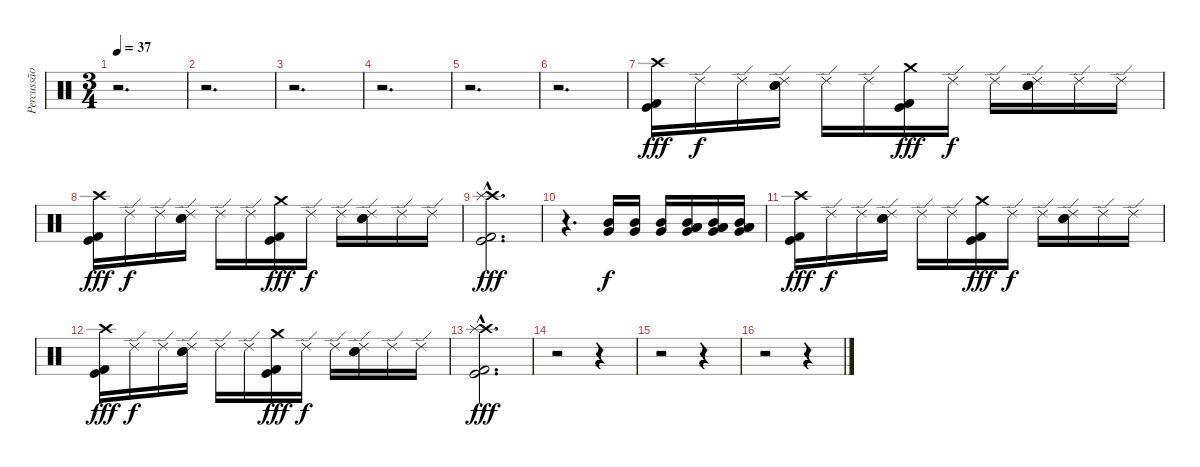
\track ("Percussão" "Percussão") {instrument percussion}
\staff {score}
\articulation defaults
\ts (3 4)
\tempo 37
\clef neutral
\ks c
r.2{d dy fff} |
r.2{d} |
r.2{d} |
r.2{d} |
r.2{d} |
r.2{d} |
("Crash high (hit)" "Kick (hit) 2" "Kick (hit)").16 "Ride (edge) 2".16{dy f} "Ride (edge) 2".16 ("Ride (edge) 2" "Electric Snare (hit)" "Snare (hit) 2").16 "Ride (edge) 2".16 "Ride (edge) 2".16 ("Crash medium (hit)" "Kick (hit) 2" "Kick (hit)").16{dy fff} "Ride (edge) 2".16{dy f} "Ride (edge) 2".16 ("Ride (edge) 2" "Electric Snare (hit)" "Snare (hit) 2").16 "Ride (edge) 2".16 "Ride (edge) 2".16 |
("Crash high (hit)" "Kick (hit) 2" "Kick (hit)").16{dy fff} "Ride (edge) 2".16{dy f} "Ride (edge) 2".16 ("Ride (edge) 2" "Electric Snare (hit)" "Snare (hit) 2").16 "Ride (edge) 2".16 "Ride (edge) 2".16 ("Crash medium (hit)" "Kick (hit) 2" "Kick (hit)").16{dy fff} "Ride (edge) 2".16{dy f} "Ride (edge) 2".16 ("Ride (edge) 2" "Electric Snare (hit)" "Snare (hit) 2").16 "Ride (edge) 2".16 "Ride (edge) 2".16 |
("Crash high (hit)"{hac} "Splash (hit)"{hac} "Kick (hit) 2"{hac} "Kick (hit)"{hac}).2{d dy fff} |
r.4{d} ("Mid Tom (hit)" "Very Low Tom (hit)").16{dy f} ("Mid Tom (hit)" "Very Low Tom (hit)").16 ("Mid Tom (hit)" "Very Low Tom (hit)").16 ("Mid Tom (hit)" "Low Tom (hit)" "Low Floor Tom (hit)" "Very Low Tom (hit)").16 ("Mid Tom (hit)" "Low Tom (hit)" "Low Floor Tom (hit)" "Very Low Tom (hit)").16 ("Mid Tom (hit)" "Low Tom (hit)" "Low Floor Tom (hit)" "Very Low Tom (hit)").16 |
("Crash high (hit)" "Kick (hit) 2" "Kick (hit)").16{dy fff} "Ride (edge) 2".16{dy f} "Ride (edge) 2".16 ("Ride (edge) 2" "Electric Snare (hit)" "Snare (hit) 2").16 "Ride (edge) 2".16 "Ride (edge) 2".16 ("Crash medium (hit)" "Kick (hit) 2" "Kick (hit)").16{dy fff} "Ride (edge) 2".16{dy f} "Ride (edge) 2".16 ("Ride (edge) 2" "Electric Snare (hit)" "Snare (hit) 2").16 "Ride (edge) 2".16 "Ride (edge) 2".16 |
("Crash high (hit)" "Kick (hit) 2" "Kick (hit)").16{dy fff} "Ride (edge) 2".16{dy f} "Ride (edge) 2".16 ("Ride (edge) 2" "Electric Snare (hit)" "Snare (hit) 2").16 "Ride (edge) 2".16 "Ride (edge) 2".16 ("Crash medium (hit)" "Kick (hit) 2" "Kick (hit)").16{dy fff} "Ride (edge) 2".16{dy f} "Ride (edge) 2".16 ("Ride (edge) 2" "Electric Snare (hit)" "Snare (hit) 2").16 "Ride (edge) 2".16 "Ride (edge) 2".16 |
("Crash high (hit)"{hac} "Splash (hit)"{hac} "Kick (hit) 2"{hac} "Kick (hit)"{hac}).2{d dy fff} |
r.2 r.4 |
r.2 r.4 |
r.2 r.4
